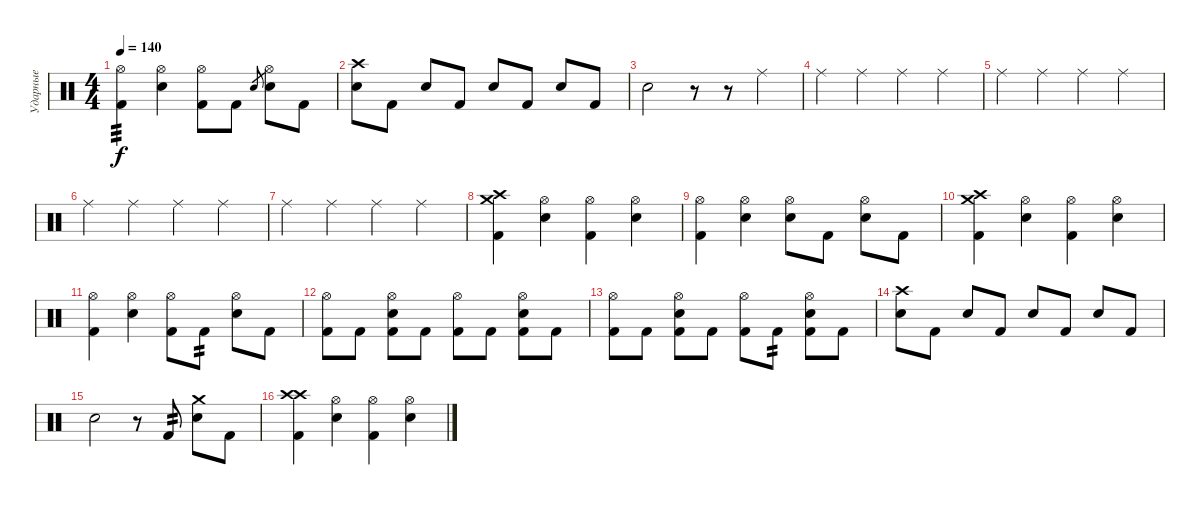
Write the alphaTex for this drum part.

\track ("Ударные" "Ударные") {instrument percussion}
\staff {score}
\articulation defaults
\ts (4 4)
\tempo 140
\clef neutral
\ks c
("Hi-Hat (open)" "Kick (hit) 2").4{tp 3 dy f} ("Hi-Hat (open)" "Electric Snare (hit)").4 ("Hi-Hat (open)" "Kick (hit) 2").8 "Kick (hit) 2".8 "Electric Snare (hit)".8{gr} ("Hi-Hat (open)" "Electric Snare (hit)").8 "Kick (hit) 2".8 |
("Crash high (hit)" "Electric Snare (hit)").8 "Kick (hit) 2".8 "Electric Snare (hit)".8 "Kick (hit) 2".8 "Electric Snare (hit)".8 "Kick (hit) 2".8 "Electric Snare (hit)".8 "Kick (hit) 2".8 |
"Electric Snare (hit)".2 r.8 r.8 "Ride (middle)".4 |
"Ride (middle)".4 "Ride (middle)".4 "Ride (middle)".4 "Ride (middle)".4 |
"Ride (middle)".4 "Ride (middle)".4 "Ride (middle)".4 "Ride (middle)".4 |
"Ride (middle)".4 "Ride (middle)".4 "Ride (middle)".4 "Ride (middle)".4 |
"Ride (middle)".4 "Ride (middle)".4 "Ride (middle)".4 "Ride (middle)".4 |
("Crash medium (hit)" "Crash high (hit)" "Kick (hit) 2").4 ("Hi-Hat (open)" "Electric Snare (hit)").4 ("Hi-Hat (open)" "Kick (hit) 2").4 ("Hi-Hat (open)" "Electric Snare (hit)").4 |
("Hi-Hat (open)" "Kick (hit) 2").4 ("Hi-Hat (open)" "Electric Snare (hit)").4 ("Hi-Hat (open)" "Electric Snare (hit)").8 "Kick (hit) 2".8 ("Hi-Hat (open)" "Electric Snare (hit)").8 "Kick (hit) 2".8 |
("Crash medium (hit)" "Crash high (hit)" "Kick (hit) 2").4 ("Hi-Hat (open)" "Electric Snare (hit)").4 ("Hi-Hat (open)" "Kick (hit) 2").4 ("Hi-Hat (open)" "Electric Snare (hit)").4 |
("Hi-Hat (open)" "Kick (hit) 2").4 ("Hi-Hat (open)" "Electric Snare (hit)").4 ("Hi-Hat (open)" "Kick (hit) 2").8 "Kick (hit) 2".8{tp 2} ("Hi-Hat (open)" "Electric Snare (hit)").8 "Kick (hit) 2".8 |
("Hi-Hat (open)" "Kick (hit) 2").8 "Kick (hit) 2".8 ("Hi-Hat (open)" "Electric Snare (hit)" "Kick (hit) 2").8 "Kick (hit) 2".8 ("Hi-Hat (open)" "Kick (hit) 2").8 "Kick (hit) 2".8 ("Hi-Hat (open)" "Electric Snare (hit)" "Kick (hit) 2").8 "Kick (hit) 2".8 |
("Hi-Hat (open)" "Kick (hit) 2").8 "Kick (hit) 2".8 ("Hi-Hat (open)" "Electric Snare (hit)" "Kick (hit) 2").8 "Kick (hit) 2".8 ("Hi-Hat (open)" "Kick (hit) 2").8 "Kick (hit) 2".8{tp 2} ("Hi-Hat (open)" "Electric Snare (hit)" "Kick (hit) 2").8 "Kick (hit) 2".8 |
("Crash high (hit)" "Electric Snare (hit)").8 "Kick (hit) 2".8 "Electric Snare (hit)".8 "Kick (hit) 2".8 "Electric Snare (hit)".8 "Kick (hit) 2".8 "Electric Snare (hit)".8 "Kick (hit) 2".8 |
"Electric Snare (hit)".2 r.8 "Kick (hit) 2".8{tp 2} ("Crash medium (hit)" "Electric Snare (hit)").8 "Kick (hit) 2".8 |
("Crash high (hit)" "Crash high (hit)" "Kick (hit) 2").4 ("Hi-Hat (open)" "Electric Snare (hit)").4 ("Hi-Hat (open)" "Kick (hit) 2").4 ("Hi-Hat (open)" "Electric Snare (hit)").4
